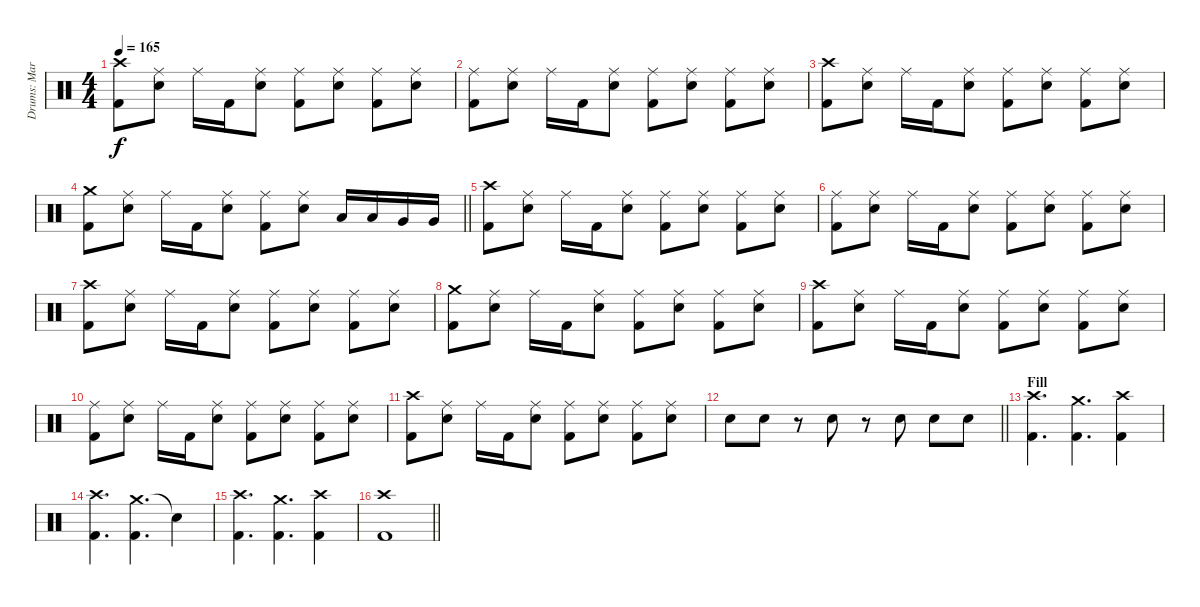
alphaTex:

\track ("Drums: Martin Herzinger" "Drums: Mar") {instrument percussion}
\staff {score}
\articulation defaults
\ts (4 4)
\tempo 165
\clef neutral
\ks aminor
("Crash high (hit)" "Kick (hit) 2").8{dy f} ("Ride (middle)" "Snare (hit) 2").8 "Ride (middle)".16 "Kick (hit) 2".16 ("Ride (middle)" "Snare (hit) 2").8 ("Ride (middle)" "Kick (hit) 2").8 ("Ride (middle)" "Snare (hit) 2").8 ("Ride (middle)" "Kick (hit) 2").8 ("Ride (middle)" "Snare (hit) 2").8 |
("Ride (middle)" "Kick (hit) 2").8 ("Ride (middle)" "Snare (hit) 2").8 "Ride (middle)".16 "Kick (hit) 2".16 ("Ride (middle)" "Snare (hit) 2").8 ("Ride (middle)" "Kick (hit) 2").8 ("Ride (middle)" "Snare (hit) 2").8 ("Ride (middle)" "Kick (hit) 2").8 ("Ride (middle)" "Snare (hit) 2").8 |
("Crash high (hit)" "Kick (hit) 2").8 ("Ride (middle)" "Snare (hit) 2").8 "Ride (middle)".16 "Kick (hit) 2".16 ("Ride (middle)" "Snare (hit) 2").8 ("Ride (middle)" "Kick (hit) 2").8 ("Ride (middle)" "Snare (hit) 2").8 ("Ride (middle)" "Kick (hit) 2").8 ("Ride (middle)" "Snare (hit) 2").8 |
\barLineRight lightlight
("Crash medium (hit)" "Kick (hit) 2").8 ("Ride (middle)" "Snare (hit) 2").8 "Ride (middle)".16 "Kick (hit) 2".16 ("Ride (middle)" "Snare (hit) 2").8 ("Ride (middle)" "Kick (hit) 2").8 ("Ride (middle)" "Snare (hit) 2").8 "Low Tom (hit)".16 "Low Tom (hit)".16 "Very Low Tom (hit)".16 "Very Low Tom (hit)".16 |
("Crash high (hit)" "Kick (hit) 2").8 ("Ride (middle)" "Snare (hit) 2").8 "Ride (middle)".16 "Kick (hit) 2".16 ("Ride (middle)" "Snare (hit) 2").8 ("Ride (middle)" "Kick (hit) 2").8 ("Ride (middle)" "Snare (hit) 2").8 ("Ride (middle)" "Kick (hit) 2").8 ("Ride (middle)" "Snare (hit) 2").8 |
("Ride (middle)" "Kick (hit) 2").8 ("Ride (middle)" "Snare (hit) 2").8 "Ride (middle)".16 "Kick (hit) 2".16 ("Ride (middle)" "Snare (hit) 2").8 ("Ride (middle)" "Kick (hit) 2").8 ("Ride (middle)" "Snare (hit) 2").8 ("Ride (middle)" "Kick (hit) 2").8 ("Ride (middle)" "Snare (hit) 2").8 |
("Crash high (hit)" "Kick (hit) 2").8 ("Ride (middle)" "Snare (hit) 2").8 "Ride (middle)".16 "Kick (hit) 2".16 ("Ride (middle)" "Snare (hit) 2").8 ("Ride (middle)" "Kick (hit) 2").8 ("Ride (middle)" "Snare (hit) 2").8 ("Ride (middle)" "Kick (hit) 2").8 ("Ride (middle)" "Snare (hit) 2").8 |
("Crash medium (hit)" "Kick (hit) 2").8 ("Ride (middle)" "Snare (hit) 2").8 "Ride (middle)".16 "Kick (hit) 2".16 ("Ride (middle)" "Snare (hit) 2").8 ("Ride (middle)" "Kick (hit) 2").8 ("Ride (middle)" "Snare (hit) 2").8 ("Ride (middle)" "Kick (hit) 2").8 ("Ride (middle)" "Snare (hit) 2").8 |
("Crash high (hit)" "Kick (hit) 2").8 ("Ride (middle)" "Snare (hit) 2").8 "Ride (middle)".16 "Kick (hit) 2".16 ("Ride (middle)" "Snare (hit) 2").8 ("Ride (middle)" "Kick (hit) 2").8 ("Ride (middle)" "Snare (hit) 2").8 ("Ride (middle)" "Kick (hit) 2").8 ("Ride (middle)" "Snare (hit) 2").8 |
("Ride (middle)" "Kick (hit) 2").8 ("Ride (middle)" "Snare (hit) 2").8 "Ride (middle)".16 "Kick (hit) 2".16 ("Ride (middle)" "Snare (hit) 2").8 ("Ride (middle)" "Kick (hit) 2").8 ("Ride (middle)" "Snare (hit) 2").8 ("Ride (middle)" "Kick (hit) 2").8 ("Ride (middle)" "Snare (hit) 2").8 |
("Crash high (hit)" "Kick (hit) 2").8 ("Ride (middle)" "Snare (hit) 2").8 "Ride (middle)".16 "Kick (hit) 2".16 ("Ride (middle)" "Snare (hit) 2").8 ("Ride (middle)" "Kick (hit) 2").8 ("Ride (middle)" "Snare (hit) 2").8 ("Ride (middle)" "Kick (hit) 2").8 ("Ride (middle)" "Snare (hit) 2").8 |
\barLineRight lightlight "Snare (hit) 2".8 "Snare (hit) 2".8
r.8 "Snare (hit) 2".8 r.8 "Snare (hit) 2".8 "Snare (hit) 2".8 "Snare (hit) 2".8 |
\section ("" "Fill")
("Crash high (hit)" "Kick (hit) 2").4{d} ("Crash medium (hit)" "Kick (hit) 2").4{d} ("Crash high (hit)" "Kick (hit) 2").4 |
("Crash high (hit)" "Kick (hit) 2").4{d} ("Crash medium (hit)" "Kick (hit) 2").4{d} "Snare (hit)"{t}.4 |
("Crash high (hit)" "Kick (hit) 2").4{d} ("Crash medium (hit)" "Kick (hit) 2").4{d} ("Crash high (hit)" "Kick (hit) 2").4 |
\barLineRight lightlight
("Crash high (hit)" "Kick (hit) 2").1
